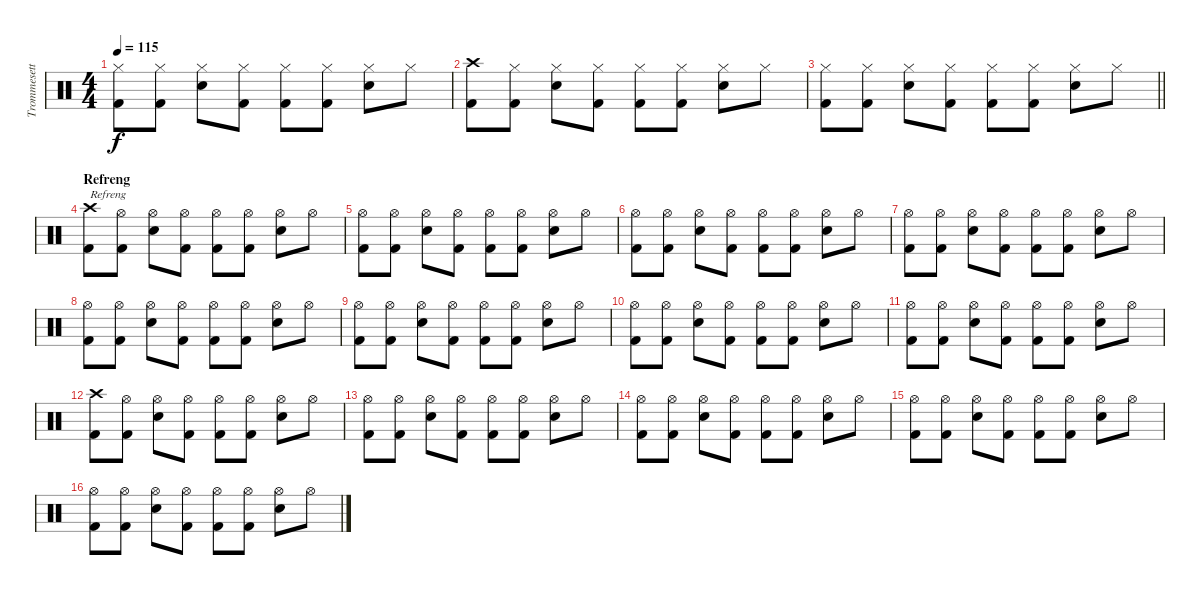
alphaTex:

\track ("Trommesett" "Trommesett") {instrument percussion}
\staff {score}
\articulation defaults
\ts (4 4)
\tempo 115
\clef neutral
\ks c
("Hi-Hat (closed)" "Kick (hit) 2").8{dy f} ("Hi-Hat (closed)" "Kick (hit) 2").8 ("Hi-Hat (closed)" "Electric Snare (hit)").8 ("Hi-Hat (closed)" "Kick (hit) 2").8 ("Hi-Hat (closed)" "Kick (hit) 2").8 ("Hi-Hat (closed)" "Kick (hit) 2").8 ("Hi-Hat (closed)" "Electric Snare (hit)").8 "Hi-Hat (closed)".8 |
("Crash high (hit)" "Kick (hit) 2").8 ("Hi-Hat (closed)" "Kick (hit) 2").8 ("Hi-Hat (closed)" "Electric Snare (hit)").8 ("Hi-Hat (closed)" "Kick (hit) 2").8 ("Hi-Hat (closed)" "Kick (hit) 2").8 ("Hi-Hat (closed)" "Kick (hit) 2").8 ("Hi-Hat (closed)" "Electric Snare (hit)").8 "Hi-Hat (closed)".8 |
\barLineRight lightlight
("Hi-Hat (closed)" "Kick (hit) 2").8 ("Hi-Hat (closed)" "Kick (hit) 2").8 ("Hi-Hat (closed)" "Electric Snare (hit)").8 ("Hi-Hat (closed)" "Kick (hit) 2").8 ("Hi-Hat (closed)" "Kick (hit) 2").8 ("Hi-Hat (closed)" "Kick (hit) 2").8 ("Hi-Hat (closed)" "Electric Snare (hit)").8 "Hi-Hat (closed)".8 |
\section ("" "Refreng")
("Crash high (hit)" "Kick (hit) 2").8{txt "Refreng"} ("Hi-Hat (open)" "Kick (hit) 2").8 ("Hi-Hat (open)" "Electric Snare (hit)").8 ("Hi-Hat (open)" "Kick (hit) 2").8 ("Hi-Hat (open)" "Kick (hit) 2").8 ("Hi-Hat (open)" "Kick (hit) 2").8 ("Hi-Hat (open)" "Electric Snare (hit)").8 "Hi-Hat (open)".8 |
("Hi-Hat (open)" "Kick (hit) 2").8 ("Hi-Hat (open)" "Kick (hit) 2").8 ("Hi-Hat (open)" "Electric Snare (hit)").8 ("Hi-Hat (open)" "Kick (hit) 2").8 ("Hi-Hat (open)" "Kick (hit) 2").8 ("Hi-Hat (open)" "Kick (hit) 2").8 ("Hi-Hat (open)" "Electric Snare (hit)").8 "Hi-Hat (open)".8 |
("Hi-Hat (open)" "Kick (hit) 2").8 ("Hi-Hat (open)" "Kick (hit) 2").8 ("Hi-Hat (open)" "Electric Snare (hit)").8 ("Hi-Hat (open)" "Kick (hit) 2").8 ("Hi-Hat (open)" "Kick (hit) 2").8 ("Hi-Hat (open)" "Kick (hit) 2").8 ("Hi-Hat (open)" "Electric Snare (hit)").8 "Hi-Hat (open)".8 |
("Hi-Hat (open)" "Kick (hit) 2").8 ("Hi-Hat (open)" "Kick (hit) 2").8 ("Hi-Hat (open)" "Electric Snare (hit)").8 ("Hi-Hat (open)" "Kick (hit) 2").8 ("Hi-Hat (open)" "Kick (hit) 2").8 ("Hi-Hat (open)" "Kick (hit) 2").8 ("Hi-Hat (open)" "Electric Snare (hit)").8 "Hi-Hat (open)".8 |
("Hi-Hat (open)" "Kick (hit) 2").8 ("Hi-Hat (open)" "Kick (hit) 2").8 ("Hi-Hat (open)" "Electric Snare (hit)").8 ("Hi-Hat (open)" "Kick (hit) 2").8 ("Hi-Hat (open)" "Kick (hit) 2").8 ("Hi-Hat (open)" "Kick (hit) 2").8 ("Hi-Hat (open)" "Electric Snare (hit)").8 "Hi-Hat (open)".8 |
("Hi-Hat (open)" "Kick (hit) 2").8 ("Hi-Hat (open)" "Kick (hit) 2").8 ("Hi-Hat (open)" "Electric Snare (hit)").8 ("Hi-Hat (open)" "Kick (hit) 2").8 ("Hi-Hat (open)" "Kick (hit) 2").8 ("Hi-Hat (open)" "Kick (hit) 2").8 ("Hi-Hat (open)" "Electric Snare (hit)").8 "Hi-Hat (open)".8 |
("Hi-Hat (open)" "Kick (hit) 2").8 ("Hi-Hat (open)" "Kick (hit) 2").8 ("Hi-Hat (open)" "Electric Snare (hit)").8 ("Hi-Hat (open)" "Kick (hit) 2").8 ("Hi-Hat (open)" "Kick (hit) 2").8 ("Hi-Hat (open)" "Kick (hit) 2").8 ("Hi-Hat (open)" "Electric Snare (hit)").8 "Hi-Hat (open)".8 |
("Hi-Hat (open)" "Kick (hit) 2").8 ("Hi-Hat (open)" "Kick (hit) 2").8 ("Hi-Hat (open)" "Electric Snare (hit)").8 ("Hi-Hat (open)" "Kick (hit) 2").8 ("Hi-Hat (open)" "Kick (hit) 2").8 ("Hi-Hat (open)" "Kick (hit) 2").8 ("Hi-Hat (open)" "Electric Snare (hit)").8 "Hi-Hat (open)".8 |
("Crash high (hit)" "Kick (hit) 2").8 ("Hi-Hat (open)" "Kick (hit) 2").8 ("Hi-Hat (open)" "Electric Snare (hit)").8 ("Hi-Hat (open)" "Kick (hit) 2").8 ("Hi-Hat (open)" "Kick (hit) 2").8 ("Hi-Hat (open)" "Kick (hit) 2").8 ("Hi-Hat (open)" "Electric Snare (hit)").8 "Hi-Hat (open)".8 |
("Hi-Hat (open)" "Kick (hit) 2").8 ("Hi-Hat (open)" "Kick (hit) 2").8 ("Hi-Hat (open)" "Electric Snare (hit)").8 ("Hi-Hat (open)" "Kick (hit) 2").8 ("Hi-Hat (open)" "Kick (hit) 2").8 ("Hi-Hat (open)" "Kick (hit) 2").8 ("Hi-Hat (open)" "Electric Snare (hit)").8 "Hi-Hat (open)".8 |
("Hi-Hat (open)" "Kick (hit) 2").8 ("Hi-Hat (open)" "Kick (hit) 2").8 ("Hi-Hat (open)" "Electric Snare (hit)").8 ("Hi-Hat (open)" "Kick (hit) 2").8 ("Hi-Hat (open)" "Kick (hit) 2").8 ("Hi-Hat (open)" "Kick (hit) 2").8 ("Hi-Hat (open)" "Electric Snare (hit)").8 "Hi-Hat (open)".8 |
("Hi-Hat (open)" "Kick (hit) 2").8 ("Hi-Hat (open)" "Kick (hit) 2").8 ("Hi-Hat (open)" "Electric Snare (hit)").8 ("Hi-Hat (open)" "Kick (hit) 2").8 ("Hi-Hat (open)" "Kick (hit) 2").8 ("Hi-Hat (open)" "Kick (hit) 2").8 ("Hi-Hat (open)" "Electric Snare (hit)").8 "Hi-Hat (open)".8 |
("Hi-Hat (open)" "Kick (hit) 2").8 ("Hi-Hat (open)" "Kick (hit) 2").8 ("Hi-Hat (open)" "Electric Snare (hit)").8 ("Hi-Hat (open)" "Kick (hit) 2").8 ("Hi-Hat (open)" "Kick (hit) 2").8 ("Hi-Hat (open)" "Kick (hit) 2").8 ("Hi-Hat (open)" "Electric Snare (hit)").8 "Hi-Hat (open)".8
